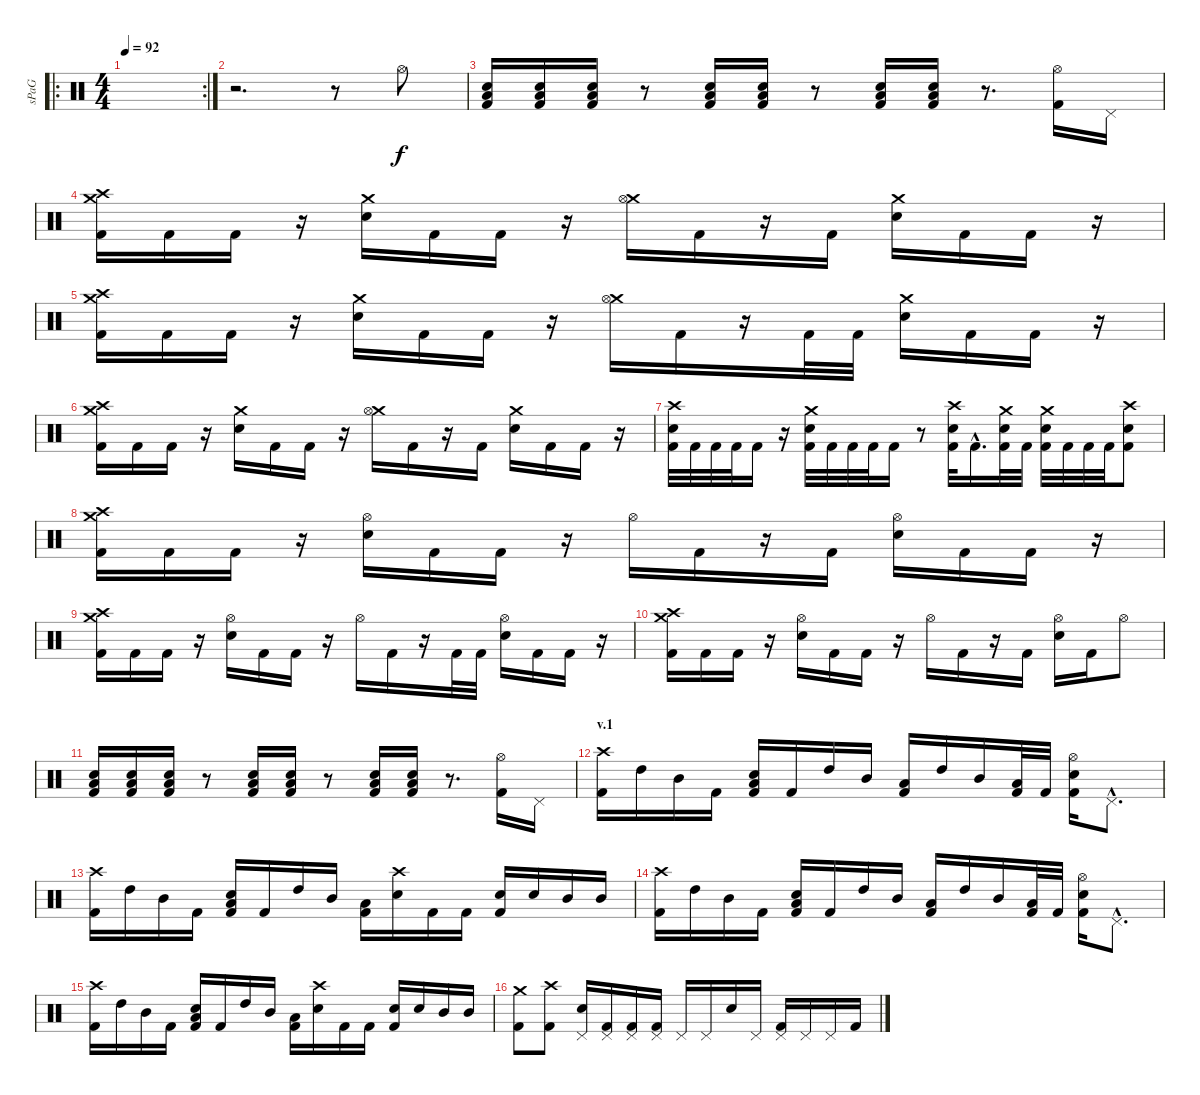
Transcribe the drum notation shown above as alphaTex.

\track ("sPaG" "sPaG") {instrument percussion}
\staff {score}
\articulation defaults
\ro
\rc 2
\ts (4 4)
\tempo 92
\clef neutral
\ks c
|
r.2{d} r.8 "Hi-Hat (open)".8 |
("Snare (hit) 2" "Low Floor Tom (hit)" "Kick (hit) 2").16 ("Snare (hit) 2" "Low Floor Tom (hit)" "Kick (hit) 2").16 ("Snare (hit) 2" "Low Floor Tom (hit)" "Kick (hit) 2").16 r.8 ("Snare (hit) 2" "Low Floor Tom (hit)" "Kick (hit) 2").16 ("Snare (hit) 2" "Low Floor Tom (hit)" "Kick (hit) 2").16 r.8 ("Snare (hit) 2" "Low Floor Tom (hit)" "Kick (hit) 2").16 ("Snare (hit) 2" "Low Floor Tom (hit)" "Kick (hit) 2").16 r.8{d} ("Hi-Hat (open)" "Kick (hit) 2").16 "Pedal Hi-Hat (hit)".16 |
("Crash medium (hit)" "Crash high (hit)" "Kick (hit) 2").16 "Kick (hit) 2".16 "Kick (hit) 2".16 r.16 ("Crash medium (hit)" "Snare (hit) 2").16 "Kick (hit) 2".16 "Kick (hit) 2".16 r.16 ("Crash medium (hit)" "Hi-Hat (open)").16 "Kick (hit) 2".16 r.16 "Kick (hit) 2".16 ("Crash medium (hit)" "Snare (hit) 2").16 "Kick (hit) 2".16 "Kick (hit) 2".16 r.16 |
("Crash medium (hit)" "Crash high (hit)" "Kick (hit) 2").16 "Kick (hit) 2".16 "Kick (hit) 2".16 r.16 ("Crash medium (hit)" "Snare (hit) 2").16 "Kick (hit) 2".16 "Kick (hit) 2".16 r.16 ("Crash medium (hit)" "Hi-Hat (open)").16 "Kick (hit) 2".16 r.16 "Kick (hit) 2".32 "Kick (hit) 2".32 ("Crash medium (hit)" "Snare (hit) 2").16 "Kick (hit) 2".16 "Kick (hit) 2".16 r.16 |
("Crash medium (hit)" "Crash high (hit)" "Kick (hit) 2").16 "Kick (hit) 2".16 "Kick (hit) 2".16 r.16 ("Crash medium (hit)" "Snare (hit) 2").16 "Kick (hit) 2".16 "Kick (hit) 2".16 r.16 ("Crash medium (hit)" "Hi-Hat (open)").16 "Kick (hit) 2".16 r.16 "Kick (hit) 2".16 ("Crash medium (hit)" "Snare (hit) 2").16 "Kick (hit) 2".16 "Kick (hit) 2".16 r.16 |
("Crash high (hit)" "Snare (hit) 2" "Kick (hit) 2").32 "Kick (hit) 2".32 "Kick (hit) 2".32 "Kick (hit) 2".32 "Kick (hit) 2".16 r.16 ("Crash medium (hit)" "Snare (hit) 2" "Kick (hit) 2").32 "Kick (hit) 2".32 "Kick (hit) 2".32 "Kick (hit) 2".32 "Kick (hit) 2".16 r.8 ("Crash high (hit)" "Snare (hit) 2" "Kick (hit) 2").32 "Kick (hit) 2"{hac}.16{d} ("Crash medium (hit)" "Snare (hit) 2" "Kick (hit) 2").32 "Kick (hit) 2".32 ("Crash medium (hit)" "Snare (hit) 2" "Kick (hit) 2").32 "Kick (hit) 2".32 "Kick (hit) 2".32 "Kick (hit) 2".32 ("Crash high (hit)" "Snare (hit) 2" "Kick (hit) 2").8 |
("Crash medium (hit)" "Crash high (hit)" "Kick (hit) 2").16 "Kick (hit) 2".16 "Kick (hit) 2".16 r.16 ("Hi-Hat (open)" "Snare (hit) 2").16 "Kick (hit) 2".16 "Kick (hit) 2".16 r.16 "Hi-Hat (open)".16 "Kick (hit) 2".16 r.16 "Kick (hit) 2".16 ("Hi-Hat (open)" "Snare (hit) 2").16 "Kick (hit) 2".16 "Kick (hit) 2".16 r.16 |
("Crash medium (hit)" "Crash high (hit)" "Kick (hit) 2").16 "Kick (hit) 2".16 "Kick (hit) 2".16 r.16 ("Hi-Hat (open)" "Snare (hit) 2").16 "Kick (hit) 2".16 "Kick (hit) 2".16 r.16 "Hi-Hat (open)".16 "Kick (hit) 2".16 r.16 "Kick (hit) 2".32 "Kick (hit) 2".32 ("Hi-Hat (open)" "Snare (hit) 2").16 "Kick (hit) 2".16 "Kick (hit) 2".16 r.16 |
("Crash medium (hit)" "Crash high (hit)" "Kick (hit) 2").16 "Kick (hit) 2".16 "Kick (hit) 2".16 r.16 ("Hi-Hat (open)" "Snare (hit) 2").16 "Kick (hit) 2".16 "Kick (hit) 2".16 r.16 "Hi-Hat (open)".16 "Kick (hit) 2".16 r.16 "Kick (hit) 2".16 ("Hi-Hat (open)" "Snare (hit) 2").16 "Kick (hit) 2".16 "Hi-Hat (open)".8 |
("Snare (hit) 2" "Low Floor Tom (hit)" "Kick (hit) 2").16 ("Snare (hit) 2" "Low Floor Tom (hit)" "Kick (hit) 2").16 ("Snare (hit) 2" "Low Floor Tom (hit)" "Kick (hit) 2").16 r.8 ("Snare (hit) 2" "Low Floor Tom (hit)" "Kick (hit) 2").16 ("Snare (hit) 2" "Low Floor Tom (hit)" "Kick (hit) 2").16 r.8 ("Snare (hit) 2" "Low Floor Tom (hit)" "Kick (hit) 2").16 ("Snare (hit) 2" "Low Floor Tom (hit)" "Kick (hit) 2").16 r.8{d} ("Hi-Hat (open)" "Kick (hit) 2").16 "Pedal Hi-Hat (hit)".16 |
\section ("" "v.1")
("Crash high (hit)" "Kick (hit) 2").16 "High Tom (hit)".16 "Mid Tom (hit)".16 "Kick (hit) 2".16 ("Low Tom (hit)" "Snare (hit) 2" "Kick (hit) 2").16 "Kick (hit) 2".16 "High Tom (hit)".16 "Mid Tom (hit)".16 ("Low Tom (hit)" "Kick (hit) 2").16 "High Tom (hit)".16 "Mid Tom (hit)".16 ("Low Tom (hit)" "Kick (hit) 2").32 "Kick (hit) 2".32 ("Hi-Hat (open)" "Snare (hit) 2" "Kick (hit) 2").16 "Pedal Hi-Hat (hit)"{hac}.8{d} |
("Crash high (hit)" "Kick (hit) 2").16 "High Tom (hit)".16 "Mid Tom (hit)".16 "Kick (hit) 2".16 ("Low Tom (hit)" "Snare (hit) 2" "Kick (hit) 2").16 "Kick (hit) 2".16 "High Tom (hit)".16 "Mid Tom (hit)".16 ("Low Tom (hit)" "Kick (hit) 2").16 ("Crash high (hit)" "Snare (hit) 2").16 "Kick (hit) 2".16 "Kick (hit) 2".16 ("Snare (hit) 2" "Kick (hit) 2").16 "Snare (hit) 2".16 "Mid Tom (hit)".16 "Mid Tom (hit)".16 |
("Crash high (hit)" "Kick (hit) 2").16 "High Tom (hit)".16 "Mid Tom (hit)".16 "Kick (hit) 2".16 ("Low Tom (hit)" "Snare (hit) 2" "Kick (hit) 2").16 "Kick (hit) 2".16 "High Tom (hit)".16 "Mid Tom (hit)".16 ("Low Tom (hit)" "Kick (hit) 2").16 "High Tom (hit)".16 "Mid Tom (hit)".16 ("Low Tom (hit)" "Kick (hit) 2").32 "Kick (hit) 2".32 ("Hi-Hat (open)" "Snare (hit) 2" "Kick (hit) 2").16 "Pedal Hi-Hat (hit)"{hac}.8{d} |
("Crash high (hit)" "Kick (hit) 2").16 "High Tom (hit)".16 "Mid Tom (hit)".16 "Kick (hit) 2".16 ("Low Tom (hit)" "Snare (hit) 2" "Kick (hit) 2").16 "Kick (hit) 2".16 "High Tom (hit)".16 "Mid Tom (hit)".16 ("Low Tom (hit)" "Kick (hit) 2").16 ("Crash high (hit)" "Snare (hit) 2").16 "Kick (hit) 2".16 "Kick (hit) 2".16 ("Snare (hit) 2" "Kick (hit) 2").16 "Snare (hit) 2".16 "Mid Tom (hit)".16 "Mid Tom (hit)".16 |
("Crash medium (hit)" "Kick (hit) 2").8 ("Crash high (hit)" "Kick (hit) 2").8 ("Pedal Hi-Hat (hit)" "Snare (hit) 2").16 ("Pedal Hi-Hat (hit)" "Kick (hit) 2").16 ("Pedal Hi-Hat (hit)" "Kick (hit) 2").16 ("Pedal Hi-Hat (hit)" "Kick (hit) 2").16 "Pedal Hi-Hat (hit)".16 "Pedal Hi-Hat (hit)".16 "Snare (hit) 2".16 "Pedal Hi-Hat (hit)".16 ("Pedal Hi-Hat (hit)" "Kick (hit) 2").16 "Pedal Hi-Hat (hit)".16 "Pedal Hi-Hat (hit)".16 "Kick (hit) 2".16
